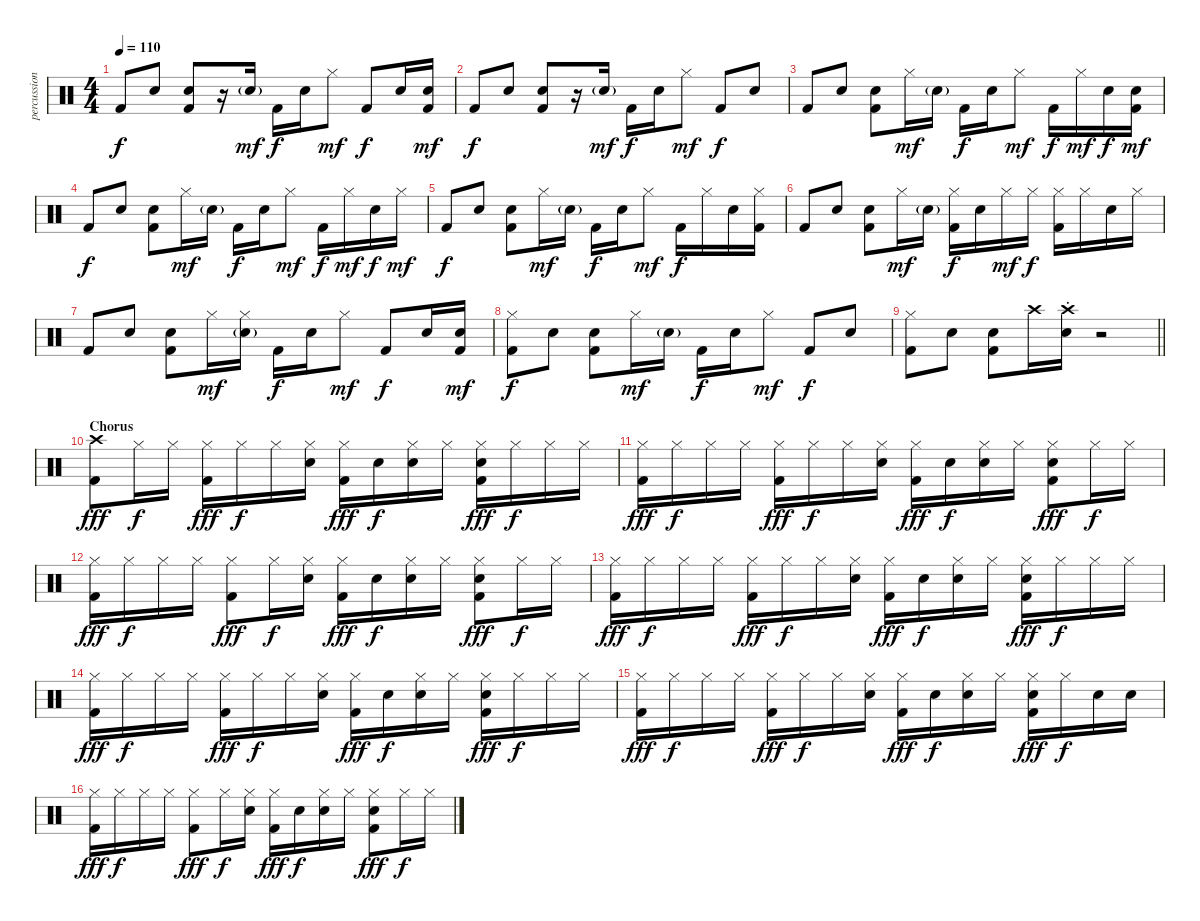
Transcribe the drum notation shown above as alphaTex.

\track ("percussion []" "percussion") {instrument percussion}
\staff {score}
\articulation defaults
\ts (4 4)
\tempo 110
\clef neutral
\ks c "Kick (hit) 2".8{dy f} "Electric Snare (hit)".8
("Electric Snare (hit)" "Kick (hit) 2").8 r.16 "Electric Snare (hit)"{g}.16{dy mf} "Kick (hit) 2".16{dy f} "Electric Snare (hit)".16 "Hi-Hat (closed)".8{dy mf} "Kick (hit) 2".8{dy f} "Electric Snare (hit)".16 ("Electric Snare (hit)" "Kick (hit) 2").16{dy mf} |
"Kick (hit) 2".8{dy f} "Electric Snare (hit)".8 ("Electric Snare (hit)" "Kick (hit) 2").8 r.16 "Electric Snare (hit)"{g}.16{dy mf} "Kick (hit) 2".16{dy f} "Electric Snare (hit)".16 "Hi-Hat (closed)".8{dy mf} "Kick (hit) 2".8{dy f} "Electric Snare (hit)".8 |
"Kick (hit) 2".8 "Electric Snare (hit)".8 ("Electric Snare (hit)" "Kick (hit) 2").8 "Hi-Hat (closed)".16{dy mf} "Electric Snare (hit)"{g}.16 "Kick (hit) 2".16{dy f} "Electric Snare (hit)".16 "Hi-Hat (closed)".8{dy mf} "Kick (hit) 2".16{dy f} "Hi-Hat (closed)".16{dy mf} "Electric Snare (hit)".16{dy f} ("Electric Snare (hit)" "Kick (hit) 2").16{dy mf} |
"Kick (hit) 2".8{dy f} "Electric Snare (hit)".8 ("Electric Snare (hit)" "Kick (hit) 2").8 "Hi-Hat (closed)".16{dy mf} "Electric Snare (hit)"{g}.16 "Kick (hit) 2".16{dy f} "Electric Snare (hit)".16 "Hi-Hat (closed)".8{dy mf} "Kick (hit) 2".16{dy f} "Hi-Hat (closed)".16{dy mf} "Electric Snare (hit)".16{dy f} "Hi-Hat (closed)".16{dy mf} |
"Kick (hit) 2".8{dy f} "Electric Snare (hit)".8 ("Electric Snare (hit)" "Kick (hit) 2").8 "Hi-Hat (closed)".16{dy mf} "Electric Snare (hit)"{g}.16 "Kick (hit) 2".16{dy f} "Electric Snare (hit)".16 "Hi-Hat (closed)".8{dy mf} "Kick (hit) 2".16{dy f} "Hi-Hat (closed)".16 "Electric Snare (hit)".16 ("Hi-Hat (closed)" "Kick (hit) 2").16 |
"Kick (hit) 2".8 "Electric Snare (hit)".8 ("Electric Snare (hit)" "Kick (hit) 2").8 "Hi-Hat (closed)".16{dy mf} "Electric Snare (hit)"{g}.16 ("Hi-Hat (closed)" "Kick (hit) 2").16{dy f} "Electric Snare (hit)".16 "Hi-Hat (closed)".16{dy mf} "Hi-Hat (closed)".16{dy f} ("Hi-Hat (closed)" "Kick (hit) 2").16 "Hi-Hat (closed)".16 "Electric Snare (hit)".16 "Hi-Hat (closed)".16 |
"Kick (hit) 2".8 "Electric Snare (hit)".8 ("Electric Snare (hit)" "Kick (hit) 2").8 "Hi-Hat (closed)".16{dy mf} ("Electric Snare (hit)"{g} "Hi-Hat (closed)").16 "Kick (hit) 2".16{dy f} "Electric Snare (hit)".16 "Hi-Hat (closed)".8{dy mf} "Kick (hit) 2".8{dy f} "Electric Snare (hit)".16 ("Electric Snare (hit)" "Kick (hit) 2").16{dy mf} |
("Hi-Hat (closed)" "Kick (hit) 2").8{dy f} "Electric Snare (hit)".8 ("Electric Snare (hit)" "Kick (hit) 2").8 "Hi-Hat (closed)".16{dy mf} "Electric Snare (hit)"{g}.16 "Kick (hit) 2".16{dy f} "Electric Snare (hit)".16 "Hi-Hat (closed)".8{dy mf} "Kick (hit) 2".8{dy f} "Electric Snare (hit)".8 |
\barLineRight lightlight
("Hi-Hat (closed)" "Kick (hit) 2").8 "Electric Snare (hit)".8 ("Electric Snare (hit)" "Kick (hit) 2").8 "Crash high (hit)".16 ("Crash high (hit)"{st} "Electric Snare (hit)").16 r.2 |
\section ("" "Chorus")
("Crash high (hit)" "Kick (hit) 2").8{dy fff} "Hi-Hat (closed)".16{dy f} "Hi-Hat (closed)".16 ("Hi-Hat (closed)" "Kick (hit) 2").16{dy fff} "Hi-Hat (closed)".16{dy f} "Hi-Hat (closed)".16 ("Electric Snare (hit)" "Hi-Hat (closed)").16 ("Hi-Hat (closed)" "Kick (hit) 2").16{dy fff} "Electric Snare (hit)".16{dy f} ("Electric Snare (hit)" "Hi-Hat (closed)").16 "Hi-Hat (closed)".16 ("Electric Snare (hit)" "Hi-Hat (closed)" "Kick (hit) 2").16{dy fff} "Hi-Hat (closed)".16{dy f} "Hi-Hat (closed)".16 "Hi-Hat (closed)".16 |
("Hi-Hat (closed)" "Kick (hit) 2").16{dy fff} "Hi-Hat (closed)".16{dy f} "Hi-Hat (closed)".16 "Hi-Hat (closed)".16 ("Hi-Hat (closed)" "Kick (hit) 2").16{dy fff} "Hi-Hat (closed)".16{dy f} "Hi-Hat (closed)".16 ("Electric Snare (hit)" "Hi-Hat (closed)").16 ("Hi-Hat (closed)" "Kick (hit) 2").16{dy fff} "Electric Snare (hit)".16{dy f} ("Electric Snare (hit)" "Hi-Hat (closed)").16 "Hi-Hat (closed)".16 ("Electric Snare (hit)" "Hi-Hat (closed)" "Kick (hit) 2").8{dy fff} "Hi-Hat (closed)".16{dy f} "Hi-Hat (closed)".16 |
("Hi-Hat (closed)" "Kick (hit) 2").16{dy fff} "Hi-Hat (closed)".16{dy f} "Hi-Hat (closed)".16 "Hi-Hat (closed)".16 ("Hi-Hat (closed)" "Kick (hit) 2").8{dy fff} "Hi-Hat (closed)".16{dy f} ("Electric Snare (hit)" "Hi-Hat (closed)").16 ("Hi-Hat (closed)" "Kick (hit) 2").16{dy fff} "Electric Snare (hit)".16{dy f} ("Electric Snare (hit)" "Hi-Hat (closed)").16 "Hi-Hat (closed)".16 ("Electric Snare (hit)" "Hi-Hat (closed)" "Kick (hit) 2").8{dy fff} "Hi-Hat (closed)".16{dy f} "Hi-Hat (closed)".16 |
("Hi-Hat (closed)" "Kick (hit) 2").16{dy fff} "Hi-Hat (closed)".16{dy f} "Hi-Hat (closed)".16 "Hi-Hat (closed)".16 ("Hi-Hat (closed)" "Kick (hit) 2").16{dy fff} "Hi-Hat (closed)".16{dy f} "Hi-Hat (closed)".16 ("Electric Snare (hit)" "Hi-Hat (closed)").16 ("Hi-Hat (closed)" "Kick (hit) 2").16{dy fff} "Electric Snare (hit)".16{dy f} ("Electric Snare (hit)" "Hi-Hat (closed)").16 "Hi-Hat (closed)".16 ("Electric Snare (hit)" "Hi-Hat (closed)" "Kick (hit) 2").16{dy fff} "Hi-Hat (closed)".16{dy f} "Hi-Hat (closed)".16 "Hi-Hat (closed)".16 |
("Hi-Hat (closed)" "Kick (hit) 2").16{dy fff} "Hi-Hat (closed)".16{dy f} "Hi-Hat (closed)".16 "Hi-Hat (closed)".16 ("Hi-Hat (closed)" "Kick (hit) 2").16{dy fff} "Hi-Hat (closed)".16{dy f} "Hi-Hat (closed)".16 ("Electric Snare (hit)" "Hi-Hat (closed)").16 ("Hi-Hat (closed)" "Kick (hit) 2").16{dy fff} "Electric Snare (hit)".16{dy f} ("Electric Snare (hit)" "Hi-Hat (closed)").16 "Hi-Hat (closed)".16 ("Electric Snare (hit)" "Hi-Hat (closed)" "Kick (hit) 2").16{dy fff} "Hi-Hat (closed)".16{dy f} "Hi-Hat (closed)".16 "Hi-Hat (closed)".16 |
("Hi-Hat (closed)" "Kick (hit) 2").16{dy fff} "Hi-Hat (closed)".16{dy f} "Hi-Hat (closed)".16 "Hi-Hat (closed)".16 ("Hi-Hat (closed)" "Kick (hit) 2").16{dy fff} "Hi-Hat (closed)".16{dy f} "Hi-Hat (closed)".16 ("Electric Snare (hit)" "Hi-Hat (closed)").16 ("Hi-Hat (closed)" "Kick (hit) 2").16{dy fff} "Electric Snare (hit)".16{dy f} ("Electric Snare (hit)" "Hi-Hat (closed)").16 "Hi-Hat (closed)".16 ("Electric Snare (hit)" "Hi-Hat (closed)" "Kick (hit) 2").16{dy fff} "Hi-Hat (closed)".16{dy f} "Electric Snare (hit)".16 "Electric Snare (hit)".16 |
("Hi-Hat (closed)" "Kick (hit) 2").16{dy fff} "Hi-Hat (closed)".16{dy f} "Hi-Hat (closed)".16 "Hi-Hat (closed)".16 ("Hi-Hat (closed)" "Kick (hit) 2").8{dy fff} "Hi-Hat (closed)".16{dy f} ("Electric Snare (hit)" "Hi-Hat (closed)").16 ("Hi-Hat (closed)" "Kick (hit) 2").16{dy fff} "Electric Snare (hit)".16{dy f} ("Electric Snare (hit)" "Hi-Hat (closed)").16 "Hi-Hat (closed)".16 ("Electric Snare (hit)" "Hi-Hat (closed)" "Kick (hit) 2").8{dy fff} "Hi-Hat (closed)".16{dy f} "Hi-Hat (closed)".16
